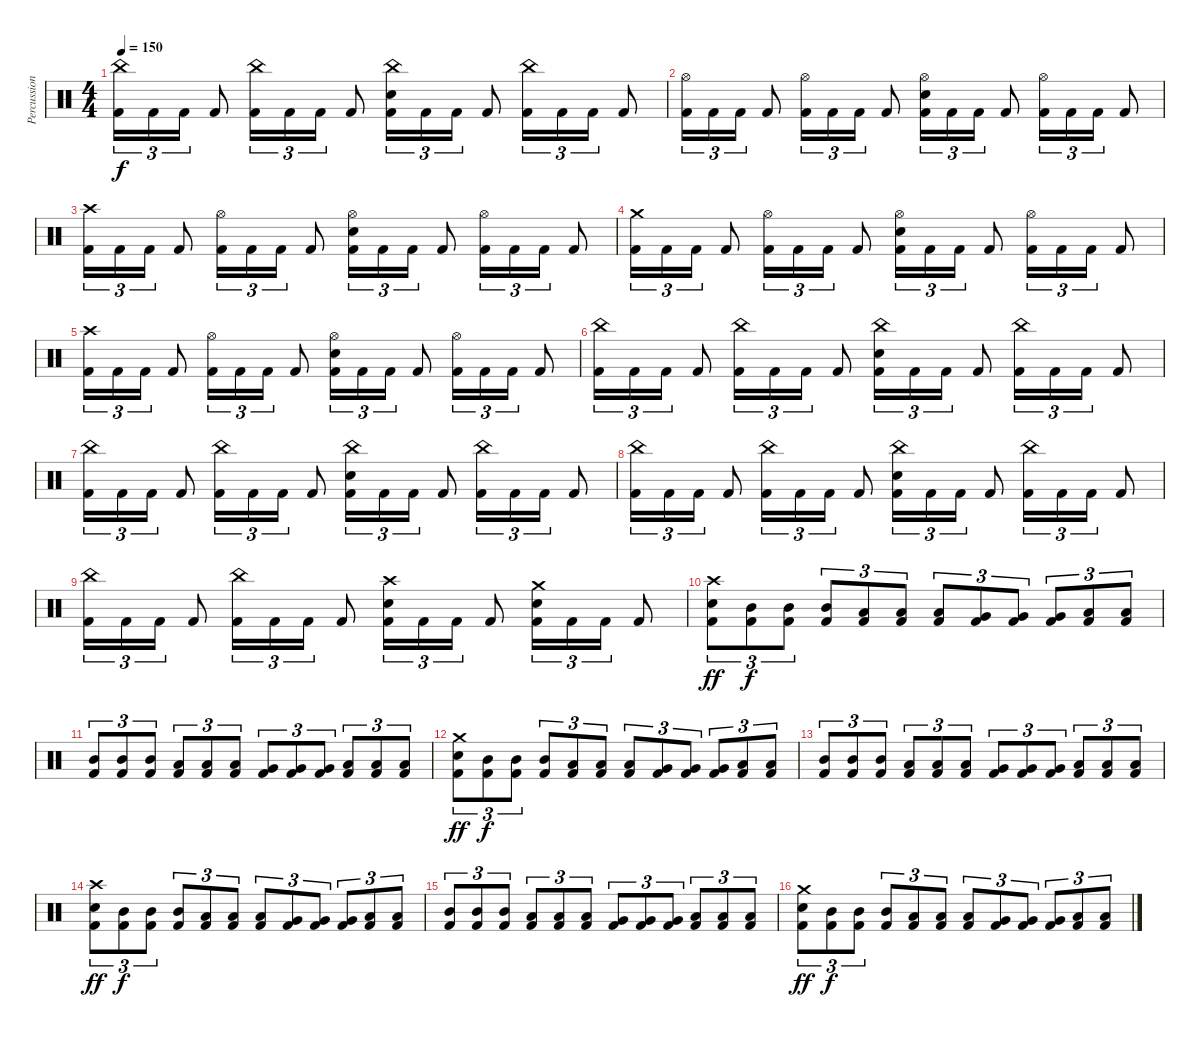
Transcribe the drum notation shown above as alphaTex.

\track ("Percussion" "Percussion") {instrument percussion}
\staff {score}
\articulation defaults
\ts (4 4)
\tempo 150
\clef neutral
\ks c
("China (hit)" "Kick (hit) 2").16{tu (3 2) dy f} "Kick (hit) 2".16{tu (3 2)} "Kick (hit) 2".16{tu (3 2)} "Kick (hit) 2".8 ("China (hit)" "Kick (hit) 2").16{tu (3 2)} "Kick (hit) 2".16{tu (3 2)} "Kick (hit) 2".16{tu (3 2)} "Kick (hit) 2".8 ("China (hit)" "Snare (hit) 2" "Kick (hit) 2").16{tu (3 2)} "Kick (hit) 2".16{tu (3 2)} "Kick (hit) 2".16{tu (3 2)} "Kick (hit) 2".8 ("China (hit)" "Kick (hit) 2").16{tu (3 2)} "Kick (hit) 2".16{tu (3 2)} "Kick (hit) 2".16{tu (3 2)} "Kick (hit) 2".8 |
("Hi-Hat (open)" "Kick (hit) 2").16{tu (3 2)} "Kick (hit) 2".16{tu (3 2)} "Kick (hit) 2".16{tu (3 2)} "Kick (hit) 2".8 ("Hi-Hat (open)" "Kick (hit) 2").16{tu (3 2)} "Kick (hit) 2".16{tu (3 2)} "Kick (hit) 2".16{tu (3 2)} "Kick (hit) 2".8 ("Hi-Hat (open)" "Snare (hit) 2" "Kick (hit) 2").16{tu (3 2)} "Kick (hit) 2".16{tu (3 2)} "Kick (hit) 2".16{tu (3 2)} "Kick (hit) 2".8 ("Hi-Hat (open)" "Kick (hit) 2").16{tu (3 2)} "Kick (hit) 2".16{tu (3 2)} "Kick (hit) 2".16{tu (3 2)} "Kick (hit) 2".8 |
("Crash high (hit)" "Kick (hit) 2").16{tu (3 2)} "Kick (hit) 2".16{tu (3 2)} "Kick (hit) 2".16{tu (3 2)} "Kick (hit) 2".8 ("Hi-Hat (open)" "Kick (hit) 2").16{tu (3 2)} "Kick (hit) 2".16{tu (3 2)} "Kick (hit) 2".16{tu (3 2)} "Kick (hit) 2".8 ("Hi-Hat (open)" "Snare (hit) 2" "Kick (hit) 2").16{tu (3 2)} "Kick (hit) 2".16{tu (3 2)} "Kick (hit) 2".16{tu (3 2)} "Kick (hit) 2".8 ("Hi-Hat (open)" "Kick (hit) 2").16{tu (3 2)} "Kick (hit) 2".16{tu (3 2)} "Kick (hit) 2".16{tu (3 2)} "Kick (hit) 2".8 |
("Crash medium (hit)" "Kick (hit) 2").16{tu (3 2)} "Kick (hit) 2".16{tu (3 2)} "Kick (hit) 2".16{tu (3 2)} "Kick (hit) 2".8 ("Hi-Hat (open)" "Kick (hit) 2").16{tu (3 2)} "Kick (hit) 2".16{tu (3 2)} "Kick (hit) 2".16{tu (3 2)} "Kick (hit) 2".8 ("Hi-Hat (open)" "Snare (hit) 2" "Kick (hit) 2").16{tu (3 2)} "Kick (hit) 2".16{tu (3 2)} "Kick (hit) 2".16{tu (3 2)} "Kick (hit) 2".8 ("Hi-Hat (open)" "Kick (hit) 2").16{tu (3 2)} "Kick (hit) 2".16{tu (3 2)} "Kick (hit) 2".16{tu (3 2)} "Kick (hit) 2".8 |
("Crash high (hit)" "Kick (hit) 2").16{tu (3 2)} "Kick (hit) 2".16{tu (3 2)} "Kick (hit) 2".16{tu (3 2)} "Kick (hit) 2".8 ("Hi-Hat (open)" "Kick (hit) 2").16{tu (3 2)} "Kick (hit) 2".16{tu (3 2)} "Kick (hit) 2".16{tu (3 2)} "Kick (hit) 2".8 ("Hi-Hat (open)" "Snare (hit) 2" "Kick (hit) 2").16{tu (3 2)} "Kick (hit) 2".16{tu (3 2)} "Kick (hit) 2".16{tu (3 2)} "Kick (hit) 2".8 ("Hi-Hat (open)" "Kick (hit) 2").16{tu (3 2)} "Kick (hit) 2".16{tu (3 2)} "Kick (hit) 2".16{tu (3 2)} "Kick (hit) 2".8 |
("China (hit)" "Kick (hit) 2").16{tu (3 2)} "Kick (hit) 2".16{tu (3 2)} "Kick (hit) 2".16{tu (3 2)} "Kick (hit) 2".8 ("China (hit)" "Kick (hit) 2").16{tu (3 2)} "Kick (hit) 2".16{tu (3 2)} "Kick (hit) 2".16{tu (3 2)} "Kick (hit) 2".8 ("China (hit)" "Snare (hit) 2" "Kick (hit) 2").16{tu (3 2)} "Kick (hit) 2".16{tu (3 2)} "Kick (hit) 2".16{tu (3 2)} "Kick (hit) 2".8 ("China (hit)" "Kick (hit) 2").16{tu (3 2)} "Kick (hit) 2".16{tu (3 2)} "Kick (hit) 2".16{tu (3 2)} "Kick (hit) 2".8 |
("China (hit)" "Kick (hit) 2").16{tu (3 2)} "Kick (hit) 2".16{tu (3 2)} "Kick (hit) 2".16{tu (3 2)} "Kick (hit) 2".8 ("China (hit)" "Kick (hit) 2").16{tu (3 2)} "Kick (hit) 2".16{tu (3 2)} "Kick (hit) 2".16{tu (3 2)} "Kick (hit) 2".8 ("China (hit)" "Snare (hit) 2" "Kick (hit) 2").16{tu (3 2)} "Kick (hit) 2".16{tu (3 2)} "Kick (hit) 2".16{tu (3 2)} "Kick (hit) 2".8 ("China (hit)" "Kick (hit) 2").16{tu (3 2)} "Kick (hit) 2".16{tu (3 2)} "Kick (hit) 2".16{tu (3 2)} "Kick (hit) 2".8 |
("China (hit)" "Kick (hit) 2").16{tu (3 2)} "Kick (hit) 2".16{tu (3 2)} "Kick (hit) 2".16{tu (3 2)} "Kick (hit) 2".8 ("China (hit)" "Kick (hit) 2").16{tu (3 2)} "Kick (hit) 2".16{tu (3 2)} "Kick (hit) 2".16{tu (3 2)} "Kick (hit) 2".8 ("China (hit)" "Snare (hit) 2" "Kick (hit) 2").16{tu (3 2)} "Kick (hit) 2".16{tu (3 2)} "Kick (hit) 2".16{tu (3 2)} "Kick (hit) 2".8 ("China (hit)" "Kick (hit) 2").16{tu (3 2)} "Kick (hit) 2".16{tu (3 2)} "Kick (hit) 2".16{tu (3 2)} "Kick (hit) 2".8 |
("China (hit)" "Kick (hit) 2").16{tu (3 2)} "Kick (hit) 2".16{tu (3 2)} "Kick (hit) 2".16{tu (3 2)} "Kick (hit) 2".8 ("China (hit)" "Kick (hit) 2").16{tu (3 2)} "Kick (hit) 2".16{tu (3 2)} "Kick (hit) 2".16{tu (3 2)} "Kick (hit) 2".8 ("Crash high (hit)" "Snare (hit) 2" "Kick (hit) 2").16{tu (3 2)} "Kick (hit) 2".16{tu (3 2)} "Kick (hit) 2".16{tu (3 2)} "Kick (hit) 2".8 ("Crash medium (hit)" "Snare (hit) 2" "Kick (hit) 2").16{tu (3 2)} "Kick (hit) 2".16{tu (3 2)} "Kick (hit) 2".16{tu (3 2)} "Kick (hit) 2".8 |
("Crash high (hit)" "Snare (hit) 2" "Kick (hit) 2").8{tu (3 2) dy ff} ("Mid Tom (hit)" "Kick (hit) 2").8{tu (3 2) dy f} ("Mid Tom (hit)" "Kick (hit) 2").8{tu (3 2)} ("Mid Tom (hit)" "Kick (hit) 2").8{tu (3 2)} ("Low Tom (hit)" "Kick (hit) 2").8{tu (3 2)} ("Low Tom (hit)" "Kick (hit) 2").8{tu (3 2)} ("Low Tom (hit)" "Kick (hit) 2").8{tu (3 2)} ("Very Low Tom (hit)" "Kick (hit) 2").8{tu (3 2)} ("Very Low Tom (hit)" "Kick (hit) 2").8{tu (3 2)} ("Very Low Tom (hit)" "Kick (hit) 2").8{tu (3 2)} ("Low Floor Tom (hit)" "Kick (hit) 2").8{tu (3 2)} ("Low Floor Tom (hit)" "Kick (hit) 2").8{tu (3 2)} |
("Mid Tom (hit)" "Kick (hit) 2").8{tu (3 2)} ("Mid Tom (hit)" "Kick (hit) 2").8{tu (3 2)} ("Mid Tom (hit)" "Kick (hit) 2").8{tu (3 2)} ("Low Tom (hit)" "Kick (hit) 2").8{tu (3 2)} ("Low Tom (hit)" "Kick (hit) 2").8{tu (3 2)} ("Low Tom (hit)" "Kick (hit) 2").8{tu (3 2)} ("Very Low Tom (hit)" "Kick (hit) 2").8{tu (3 2)} ("Very Low Tom (hit)" "Kick (hit) 2").8{tu (3 2)} ("Very Low Tom (hit)" "Kick (hit) 2").8{tu (3 2)} ("Low Floor Tom (hit)" "Kick (hit) 2").8{tu (3 2)} ("Low Floor Tom (hit)" "Kick (hit) 2").8{tu (3 2)} ("Low Floor Tom (hit)" "Kick (hit) 2").8{tu (3 2)} |
("Crash medium (hit)" "Snare (hit) 2" "Kick (hit) 2").8{tu (3 2) dy ff} ("Mid Tom (hit)" "Kick (hit) 2").8{tu (3 2) dy f} ("Mid Tom (hit)" "Kick (hit) 2").8{tu (3 2)} ("Mid Tom (hit)" "Kick (hit) 2").8{tu (3 2)} ("Low Tom (hit)" "Kick (hit) 2").8{tu (3 2)} ("Low Tom (hit)" "Kick (hit) 2").8{tu (3 2)} ("Low Tom (hit)" "Kick (hit) 2").8{tu (3 2)} ("Very Low Tom (hit)" "Kick (hit) 2").8{tu (3 2)} ("Very Low Tom (hit)" "Kick (hit) 2").8{tu (3 2)} ("Very Low Tom (hit)" "Kick (hit) 2").8{tu (3 2)} ("Low Floor Tom (hit)" "Kick (hit) 2").8{tu (3 2)} ("Low Floor Tom (hit)" "Kick (hit) 2").8{tu (3 2)} |
("Mid Tom (hit)" "Kick (hit) 2").8{tu (3 2)} ("Mid Tom (hit)" "Kick (hit) 2").8{tu (3 2)} ("Mid Tom (hit)" "Kick (hit) 2").8{tu (3 2)} ("Low Tom (hit)" "Kick (hit) 2").8{tu (3 2)} ("Low Tom (hit)" "Kick (hit) 2").8{tu (3 2)} ("Low Tom (hit)" "Kick (hit) 2").8{tu (3 2)} ("Very Low Tom (hit)" "Kick (hit) 2").8{tu (3 2)} ("Very Low Tom (hit)" "Kick (hit) 2").8{tu (3 2)} ("Very Low Tom (hit)" "Kick (hit) 2").8{tu (3 2)} ("Low Floor Tom (hit)" "Kick (hit) 2").8{tu (3 2)} ("Low Floor Tom (hit)" "Kick (hit) 2").8{tu (3 2)} ("Low Floor Tom (hit)" "Kick (hit) 2").8{tu (3 2)} |
("Crash high (hit)" "Snare (hit) 2" "Kick (hit) 2").8{tu (3 2) dy ff} ("Mid Tom (hit)" "Kick (hit) 2").8{tu (3 2) dy f} ("Mid Tom (hit)" "Kick (hit) 2").8{tu (3 2)} ("Mid Tom (hit)" "Kick (hit) 2").8{tu (3 2)} ("Low Tom (hit)" "Kick (hit) 2").8{tu (3 2)} ("Low Tom (hit)" "Kick (hit) 2").8{tu (3 2)} ("Low Tom (hit)" "Kick (hit) 2").8{tu (3 2)} ("Very Low Tom (hit)" "Kick (hit) 2").8{tu (3 2)} ("Very Low Tom (hit)" "Kick (hit) 2").8{tu (3 2)} ("Very Low Tom (hit)" "Kick (hit) 2").8{tu (3 2)} ("Low Floor Tom (hit)" "Kick (hit) 2").8{tu (3 2)} ("Low Floor Tom (hit)" "Kick (hit) 2").8{tu (3 2)} |
("Mid Tom (hit)" "Kick (hit) 2").8{tu (3 2)} ("Mid Tom (hit)" "Kick (hit) 2").8{tu (3 2)} ("Mid Tom (hit)" "Kick (hit) 2").8{tu (3 2)} ("Low Tom (hit)" "Kick (hit) 2").8{tu (3 2)} ("Low Tom (hit)" "Kick (hit) 2").8{tu (3 2)} ("Low Tom (hit)" "Kick (hit) 2").8{tu (3 2)} ("Very Low Tom (hit)" "Kick (hit) 2").8{tu (3 2)} ("Very Low Tom (hit)" "Kick (hit) 2").8{tu (3 2)} ("Very Low Tom (hit)" "Kick (hit) 2").8{tu (3 2)} ("Low Floor Tom (hit)" "Kick (hit) 2").8{tu (3 2)} ("Low Floor Tom (hit)" "Kick (hit) 2").8{tu (3 2)} ("Low Floor Tom (hit)" "Kick (hit) 2").8{tu (3 2)} |
("Crash medium (hit)" "Snare (hit) 2" "Kick (hit) 2").8{tu (3 2) dy ff} ("Mid Tom (hit)" "Kick (hit) 2").8{tu (3 2) dy f} ("Mid Tom (hit)" "Kick (hit) 2").8{tu (3 2)} ("Mid Tom (hit)" "Kick (hit) 2").8{tu (3 2)} ("Low Tom (hit)" "Kick (hit) 2").8{tu (3 2)} ("Low Tom (hit)" "Kick (hit) 2").8{tu (3 2)} ("Low Tom (hit)" "Kick (hit) 2").8{tu (3 2)} ("Very Low Tom (hit)" "Kick (hit) 2").8{tu (3 2)} ("Very Low Tom (hit)" "Kick (hit) 2").8{tu (3 2)} ("Very Low Tom (hit)" "Kick (hit) 2").8{tu (3 2)} ("Low Floor Tom (hit)" "Kick (hit) 2").8{tu (3 2)} ("Low Floor Tom (hit)" "Kick (hit) 2").8{tu (3 2)}
